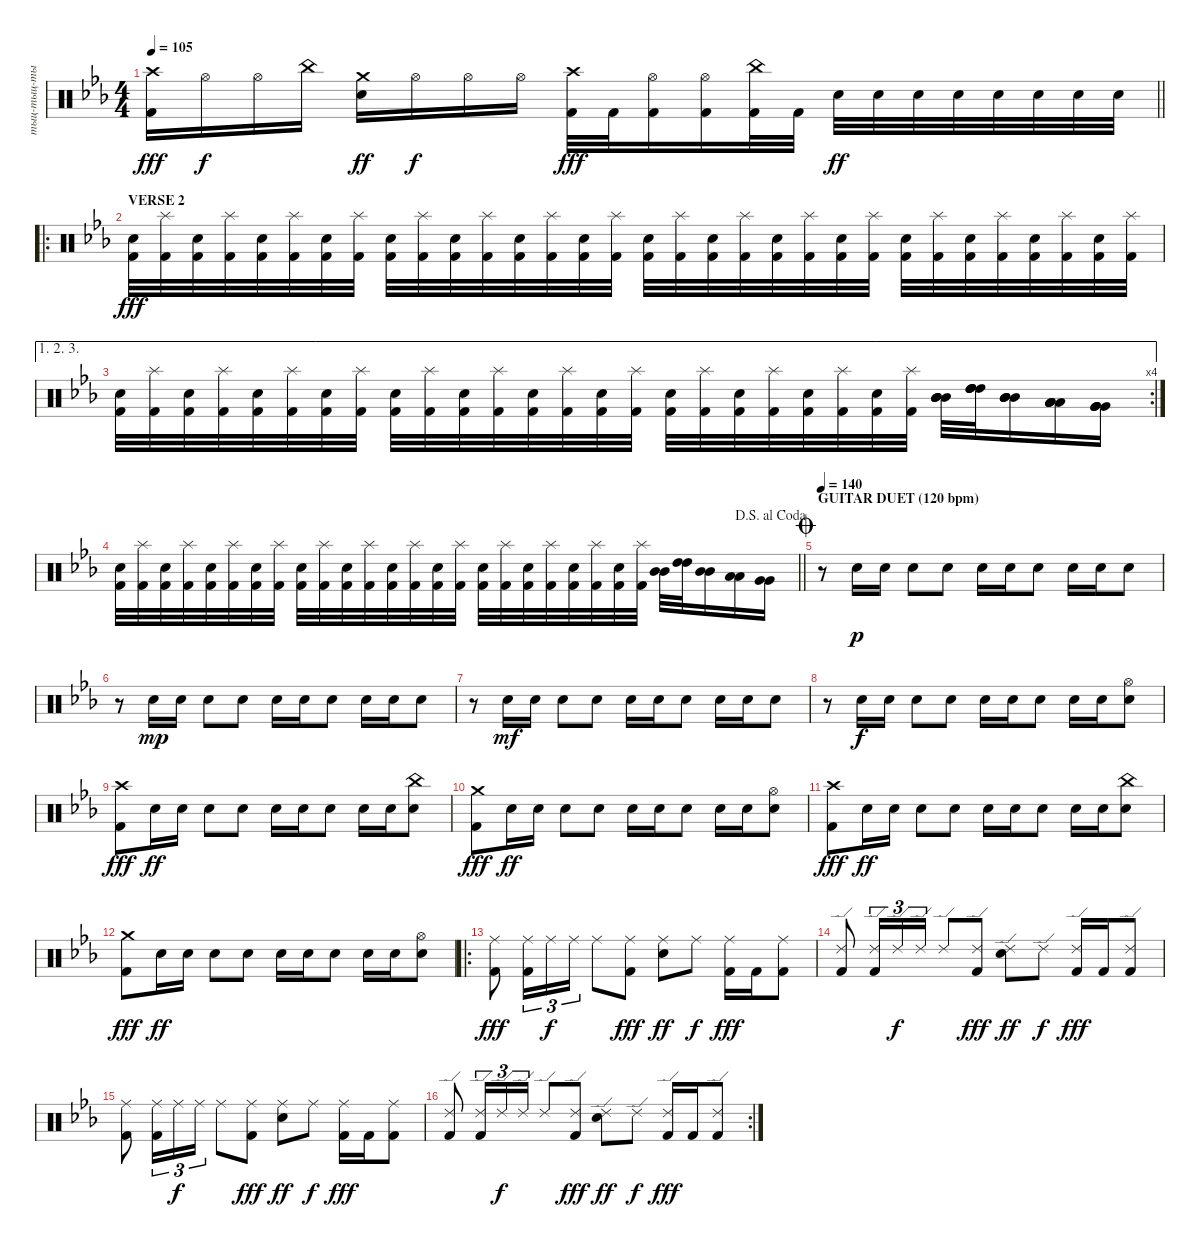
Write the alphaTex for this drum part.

\track ("тыц-тыц-тыц..." "тыц-тыц-ты") {instrument percussion}
\staff
\articulation defaults
\ts (4 4)
\tempo 105
\clef neutral
\barLineRight lightlight
\ks cminor
("Crash high (hit)" "Kick (hit) 2").16{dy fff} "Hi-Hat (open)".16{dy f} "Hi-Hat (open)".16 "China (hit)".16 ("Crash medium (hit)" "Electric Snare (hit)").16{dy ff} "Hi-Hat (open)".16{dy f} "Hi-Hat (open)".16 "Hi-Hat (open)".16 ("Crash high (hit)" "Kick (hit) 2").32{dy fff} "Kick (hit) 2".32 ("Hi-Hat (open)" "Kick (hit) 2").16 ("Hi-Hat (open)" "Kick (hit) 2").16 ("China (hit)" "Kick (hit) 2").32 "Kick (hit) 2".32 "Electric Snare (hit)".32{dy ff} "Electric Snare (hit)".32 "Electric Snare (hit)".32 "Electric Snare (hit)".32 "Electric Snare (hit)".32 "Electric Snare (hit)".32 "Electric Snare (hit)".32 "Electric Snare (hit)".32 |
\ro
\section ("" "VERSE 2")
("Electric Snare (hit)" "Kick (hit) 2").32{dy fff} ("Splash (hit)" "Kick (hit) 2").32 ("Electric Snare (hit)" "Kick (hit) 2").32 ("Splash (hit)" "Kick (hit) 2").32 ("Electric Snare (hit)" "Kick (hit) 2").32 ("Splash (hit)" "Kick (hit) 2").32 ("Electric Snare (hit)" "Kick (hit) 2").32 ("Splash (hit)" "Kick (hit) 2").32 ("Electric Snare (hit)" "Kick (hit) 2").32 ("Splash (hit)" "Kick (hit) 2").32 ("Electric Snare (hit)" "Kick (hit) 2").32 ("Splash (hit)" "Kick (hit) 2").32 ("Electric Snare (hit)" "Kick (hit) 2").32 ("Splash (hit)" "Kick (hit) 2").32 ("Electric Snare (hit)" "Kick (hit) 2").32 ("Splash (hit)" "Kick (hit) 2").32 ("Electric Snare (hit)" "Kick (hit) 2").32 ("Splash (hit)" "Kick (hit) 2").32 ("Electric Snare (hit)" "Kick (hit) 2").32 ("Splash (hit)" "Kick (hit) 2").32 ("Electric Snare (hit)" "Kick (hit) 2").32 ("Splash (hit)" "Kick (hit) 2").32 ("Electric Snare (hit)" "Kick (hit) 2").32 ("Splash (hit)" "Kick (hit) 2").32 ("Electric Snare (hit)" "Kick (hit) 2").32 ("Splash (hit)" "Kick (hit) 2").32 ("Electric Snare (hit)" "Kick (hit) 2").32 ("Splash (hit)" "Kick (hit) 2").32 ("Electric Snare (hit)" "Kick (hit) 2").32 ("Splash (hit)" "Kick (hit) 2").32 ("Electric Snare (hit)" "Kick (hit) 2").32 ("Splash (hit)" "Kick (hit) 2").32 |
\ae (1 2 3)
\rc 4
("Electric Snare (hit)" "Kick (hit) 2").32 ("Splash (hit)" "Kick (hit) 2").32 ("Electric Snare (hit)" "Kick (hit) 2").32 ("Splash (hit)" "Kick (hit) 2").32 ("Electric Snare (hit)" "Kick (hit) 2").32 ("Splash (hit)" "Kick (hit) 2").32 ("Electric Snare (hit)" "Kick (hit) 2").32 ("Splash (hit)" "Kick (hit) 2").32 ("Electric Snare (hit)" "Kick (hit) 2").32 ("Splash (hit)" "Kick (hit) 2").32 ("Electric Snare (hit)" "Kick (hit) 2").32 ("Splash (hit)" "Kick (hit) 2").32 ("Electric Snare (hit)" "Kick (hit) 2").32 ("Splash (hit)" "Kick (hit) 2").32 ("Electric Snare (hit)" "Kick (hit) 2").32 ("Splash (hit)" "Kick (hit) 2").32 ("Electric Snare (hit)" "Kick (hit) 2").32 ("Splash (hit)" "Kick (hit) 2").32 ("Electric Snare (hit)" "Kick (hit) 2").32 ("Splash (hit)" "Kick (hit) 2").32 ("Electric Snare (hit)" "Kick (hit) 2").32 ("Splash (hit)" "Kick (hit) 2").32 ("Electric Snare (hit)" "Kick (hit) 2").32 ("Splash (hit)" "Kick (hit) 2").32 ("Mid Tom (hit)" "Mid Tom (hit)" "Mid Tom (hit)" "Mid Tom (hit)").32 ("High Tom (hit)" "High Tom (hit)" "High Tom (hit)" "High Tom (hit)").32 ("Mid Tom (hit)" "Mid Tom (hit)" "Mid Tom (hit)" "Mid Tom (hit)").16 ("Low Tom (hit)" "Low Tom (hit)" "Low Tom (hit)" "Low Tom (hit)").16 ("Very Low Tom (hit)" "Very Low Tom (hit)" "Very Low Tom (hit)" "Very Low Tom (hit)").16 |
\jump dalsegnoalcoda
\barLineRight lightlight
("Electric Snare (hit)" "Kick (hit) 2").32 ("Splash (hit)" "Kick (hit) 2").32 ("Electric Snare (hit)" "Kick (hit) 2").32 ("Splash (hit)" "Kick (hit) 2").32 ("Electric Snare (hit)" "Kick (hit) 2").32 ("Splash (hit)" "Kick (hit) 2").32 ("Electric Snare (hit)" "Kick (hit) 2").32 ("Splash (hit)" "Kick (hit) 2").32 ("Electric Snare (hit)" "Kick (hit) 2").32 ("Splash (hit)" "Kick (hit) 2").32 ("Electric Snare (hit)" "Kick (hit) 2").32 ("Splash (hit)" "Kick (hit) 2").32 ("Electric Snare (hit)" "Kick (hit) 2").32 ("Splash (hit)" "Kick (hit) 2").32 ("Electric Snare (hit)" "Kick (hit) 2").32 ("Splash (hit)" "Kick (hit) 2").32 ("Electric Snare (hit)" "Kick (hit) 2").32 ("Splash (hit)" "Kick (hit) 2").32 ("Electric Snare (hit)" "Kick (hit) 2").32 ("Splash (hit)" "Kick (hit) 2").32 ("Electric Snare (hit)" "Kick (hit) 2").32 ("Splash (hit)" "Kick (hit) 2").32 ("Electric Snare (hit)" "Kick (hit) 2").32 ("Splash (hit)" "Kick (hit) 2").32 ("Mid Tom (hit)" "Mid Tom (hit)").32 ("High Tom (hit)" "High Tom (hit)").32 ("Mid Tom (hit)" "Mid Tom (hit)").16 ("Low Tom (hit)" "Low Tom (hit)").16 ("Very Low Tom (hit)" "Very Low Tom (hit)").16 |
\section ("" "GUITAR DUET (120 bpm)")
\jump coda
\tempo 140
r.8 "Electric Snare (hit)".16{dy p} "Electric Snare (hit)".16 "Electric Snare (hit)".8 "Electric Snare (hit)".8 "Electric Snare (hit)".16 "Electric Snare (hit)".16 "Electric Snare (hit)".8 "Electric Snare (hit)".16 "Electric Snare (hit)".16 "Electric Snare (hit)".8 |
r.8 "Electric Snare (hit)".16{dy mp} "Electric Snare (hit)".16 "Electric Snare (hit)".8 "Electric Snare (hit)".8 "Electric Snare (hit)".16 "Electric Snare (hit)".16 "Electric Snare (hit)".8 "Electric Snare (hit)".16 "Electric Snare (hit)".16 "Electric Snare (hit)".8 |
r.8 "Electric Snare (hit)".16{dy mf} "Electric Snare (hit)".16 "Electric Snare (hit)".8 "Electric Snare (hit)".8 "Electric Snare (hit)".16 "Electric Snare (hit)".16 "Electric Snare (hit)".8 "Electric Snare (hit)".16 "Electric Snare (hit)".16 "Electric Snare (hit)".8 |
r.8 "Electric Snare (hit)".16{dy f} "Electric Snare (hit)".16 "Electric Snare (hit)".8 "Electric Snare (hit)".8 "Electric Snare (hit)".16 "Electric Snare (hit)".16 "Electric Snare (hit)".8 "Electric Snare (hit)".16 "Electric Snare (hit)".16 ("Hi-Hat (open)" "Electric Snare (hit)").8 |
("Crash high (hit)" "Kick (hit) 2").8{dy fff} "Electric Snare (hit)".16{dy ff} "Electric Snare (hit)".16 "Electric Snare (hit)".8 "Electric Snare (hit)".8 "Electric Snare (hit)".16 "Electric Snare (hit)".16 "Electric Snare (hit)".8 "Electric Snare (hit)".16 "Electric Snare (hit)".16 ("China (hit)" "Electric Snare (hit)").8 |
("Crash medium (hit)" "Kick (hit) 2").8{dy fff} "Electric Snare (hit)".16{dy ff} "Electric Snare (hit)".16 "Electric Snare (hit)".8 "Electric Snare (hit)".8 "Electric Snare (hit)".16 "Electric Snare (hit)".16 "Electric Snare (hit)".8 "Electric Snare (hit)".16 "Electric Snare (hit)".16 ("Hi-Hat (open)" "Electric Snare (hit)").8 |
("Crash high (hit)" "Kick (hit) 2").8{dy fff} "Electric Snare (hit)".16{dy ff} "Electric Snare (hit)".16 "Electric Snare (hit)".8 "Electric Snare (hit)".8 "Electric Snare (hit)".16 "Electric Snare (hit)".16 "Electric Snare (hit)".8 "Electric Snare (hit)".16 "Electric Snare (hit)".16 ("China (hit)" "Electric Snare (hit)").8 |
("Crash medium (hit)" "Kick (hit) 2").8{dy fff} "Electric Snare (hit)".16{dy ff} "Electric Snare (hit)".16 "Electric Snare (hit)".8 "Electric Snare (hit)".8 "Electric Snare (hit)".16 "Electric Snare (hit)".16 "Electric Snare (hit)".8 "Electric Snare (hit)".16 "Electric Snare (hit)".16 ("Hi-Hat (open)" "Electric Snare (hit)").8 |
\ro
("Ride (middle)" "Kick (hit) 2").8{dy fff} ("Ride (middle)" "Kick (hit) 2").16{tu (3 2)} "Ride (middle)".16{tu (3 2) dy f} "Ride (middle)".16{tu (3 2)} "Ride (middle)".8 ("Ride (middle)" "Kick (hit) 2").8{dy fff} ("Ride (middle)" "Electric Snare (hit)").8{dy ff} "Ride (middle)".8{dy f} ("Ride (middle)" "Kick (hit) 2").16{dy fff} "Kick (hit) 2".16 ("Ride (middle)" "Kick (hit) 2").8 |
("Ride (edge) 2" "Kick (hit) 2").8 ("Ride (edge) 2" "Kick (hit) 2").16{tu (3 2)} "Ride (edge) 2".16{tu (3 2) dy f} "Ride (edge) 2".16{tu (3 2)} "Ride (edge) 2".8 ("Ride (edge) 2" "Kick (hit) 2").8{dy fff} ("Ride (edge) 2" "Electric Snare (hit)").8{dy ff} "Ride (edge) 2".8{dy f} ("Ride (edge) 2" "Kick (hit) 2").16{dy fff} "Kick (hit) 2".16 ("Ride (edge) 2" "Kick (hit) 2").8 |
("Ride (middle)" "Kick (hit) 2").8 ("Ride (middle)" "Kick (hit) 2").16{tu (3 2)} "Ride (middle)".16{tu (3 2) dy f} "Ride (middle)".16{tu (3 2)} "Ride (middle)".8 ("Ride (middle)" "Kick (hit) 2").8{dy fff} ("Ride (middle)" "Electric Snare (hit)").8{dy ff} "Ride (middle)".8{dy f} ("Ride (middle)" "Kick (hit) 2").16{dy fff} "Kick (hit) 2".16 ("Ride (middle)" "Kick (hit) 2").8 |
\rc 2
("Ride (edge) 2" "Kick (hit) 2").8 ("Ride (edge) 2" "Kick (hit) 2").16{tu (3 2)} "Ride (edge) 2".16{tu (3 2) dy f} "Ride (edge) 2".16{tu (3 2)} "Ride (edge) 2".8 ("Ride (edge) 2" "Kick (hit) 2").8{dy fff} ("Ride (edge) 2" "Electric Snare (hit)").8{dy ff} "Ride (edge) 2".8{dy f} ("Ride (edge) 2" "Kick (hit) 2").16{dy fff} "Kick (hit) 2".16 ("Ride (edge) 2" "Kick (hit) 2").8
